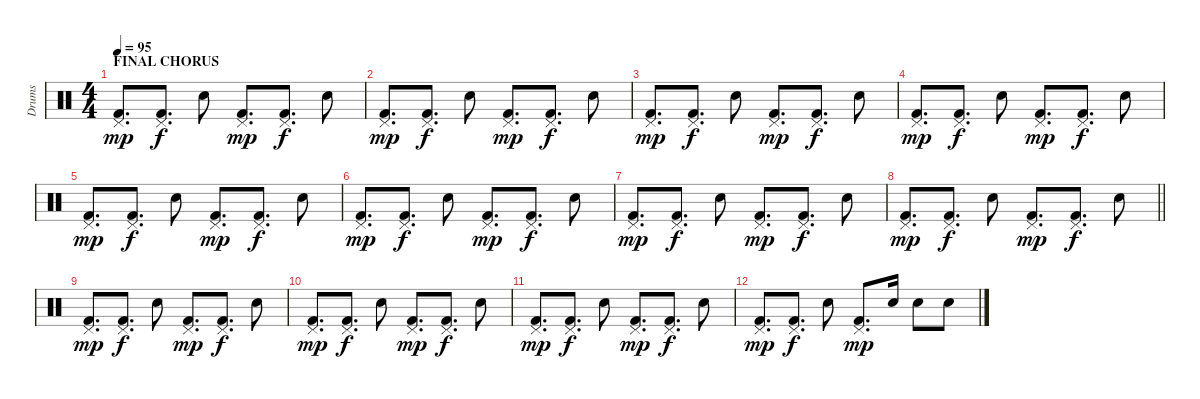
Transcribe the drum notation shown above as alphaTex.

\track ("Drums" "Drums") {instrument percussion}
\staff {score}
\articulation defaults
\ts (4 4)
\section ("" "FINAL CHORUS")
\tempo 95
\clef neutral
\ks c
("Pedal Hi-Hat (hit)" "Kick (hit) 2").8{d dy mp} ("Pedal Hi-Hat (hit)" "Kick (hit) 2").8{d dy f} "Snare (hit) 2".8 ("Pedal Hi-Hat (hit)" "Kick (hit) 2").8{d dy mp} ("Pedal Hi-Hat (hit)" "Kick (hit) 2").8{d dy f} "Snare (hit) 2".8 |
("Pedal Hi-Hat (hit)" "Kick (hit) 2").8{d dy mp} ("Pedal Hi-Hat (hit)" "Kick (hit) 2").8{d dy f} "Snare (hit) 2".8 ("Pedal Hi-Hat (hit)" "Kick (hit) 2").8{d dy mp} ("Pedal Hi-Hat (hit)" "Kick (hit) 2").8{d dy f} "Snare (hit) 2".8 |
("Pedal Hi-Hat (hit)" "Kick (hit) 2").8{d dy mp} ("Pedal Hi-Hat (hit)" "Kick (hit) 2").8{d dy f} "Snare (hit) 2".8 ("Pedal Hi-Hat (hit)" "Kick (hit) 2").8{d dy mp} ("Pedal Hi-Hat (hit)" "Kick (hit) 2").8{d dy f} "Snare (hit) 2".8 |
("Pedal Hi-Hat (hit)" "Kick (hit) 2").8{d dy mp} ("Pedal Hi-Hat (hit)" "Kick (hit) 2").8{d dy f} "Snare (hit) 2".8 ("Pedal Hi-Hat (hit)" "Kick (hit) 2").8{d dy mp} ("Pedal Hi-Hat (hit)" "Kick (hit) 2").8{d dy f} "Snare (hit) 2".8 |
("Pedal Hi-Hat (hit)" "Kick (hit) 2").8{d dy mp} ("Pedal Hi-Hat (hit)" "Kick (hit) 2").8{d dy f} "Snare (hit) 2".8 ("Pedal Hi-Hat (hit)" "Kick (hit) 2").8{d dy mp} ("Pedal Hi-Hat (hit)" "Kick (hit) 2").8{d dy f} "Snare (hit) 2".8 |
("Pedal Hi-Hat (hit)" "Kick (hit) 2").8{d dy mp} ("Pedal Hi-Hat (hit)" "Kick (hit) 2").8{d dy f} "Snare (hit) 2".8 ("Pedal Hi-Hat (hit)" "Kick (hit) 2").8{d dy mp} ("Pedal Hi-Hat (hit)" "Kick (hit) 2").8{d dy f} "Snare (hit) 2".8 |
("Pedal Hi-Hat (hit)" "Kick (hit) 2").8{d dy mp} ("Pedal Hi-Hat (hit)" "Kick (hit) 2").8{d dy f} "Snare (hit) 2".8 ("Pedal Hi-Hat (hit)" "Kick (hit) 2").8{d dy mp} ("Pedal Hi-Hat (hit)" "Kick (hit) 2").8{d dy f} "Snare (hit) 2".8 |
\barLineRight lightlight
("Pedal Hi-Hat (hit)" "Kick (hit) 2").8{d dy mp} ("Pedal Hi-Hat (hit)" "Kick (hit) 2").8{d dy f} "Snare (hit) 2".8 ("Pedal Hi-Hat (hit)" "Kick (hit) 2").8{d dy mp} ("Pedal Hi-Hat (hit)" "Kick (hit) 2").8{d dy f} "Snare (hit) 2".8 |
("Pedal Hi-Hat (hit)" "Kick (hit) 2").8{d dy mp} ("Pedal Hi-Hat (hit)" "Kick (hit) 2").8{d dy f} "Snare (hit) 2".8 ("Pedal Hi-Hat (hit)" "Kick (hit) 2").8{d dy mp} ("Pedal Hi-Hat (hit)" "Kick (hit) 2").8{d dy f} "Snare (hit) 2".8 |
("Pedal Hi-Hat (hit)" "Kick (hit) 2").8{d dy mp} ("Pedal Hi-Hat (hit)" "Kick (hit) 2").8{d dy f} "Snare (hit) 2".8 ("Pedal Hi-Hat (hit)" "Kick (hit) 2").8{d dy mp} ("Pedal Hi-Hat (hit)" "Kick (hit) 2").8{d dy f} "Snare (hit) 2".8 |
("Pedal Hi-Hat (hit)" "Kick (hit) 2").8{d dy mp} ("Pedal Hi-Hat (hit)" "Kick (hit) 2").8{d dy f} "Snare (hit) 2".8 ("Pedal Hi-Hat (hit)" "Kick (hit) 2").8{d dy mp} ("Pedal Hi-Hat (hit)" "Kick (hit) 2").8{d dy f} "Snare (hit) 2".8 |
("Pedal Hi-Hat (hit)" "Kick (hit) 2").8{d dy mp} ("Pedal Hi-Hat (hit)" "Kick (hit) 2").8{d dy f} "Snare (hit) 2".8 ("Pedal Hi-Hat (hit)" "Kick (hit) 2").8{d dy mp} "Snare (hit) 2".16 "Snare (hit) 2".8 "Snare (hit) 2".8
